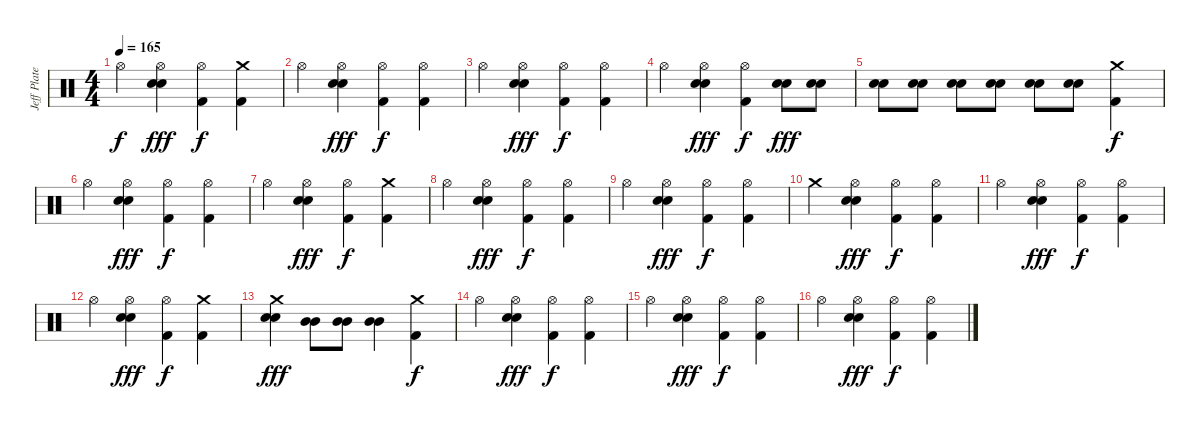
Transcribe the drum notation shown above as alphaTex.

\track ("Jeff Plate" "Jeff Plate") {instrument percussion}
\staff {score}
\articulation defaults
\ts (4 4)
\tempo 165
\clef neutral
\ks c "Hi-Hat (open)".4{dy f}
("Hi-Hat (open)" "Electric Snare (hit)" "Electric Snare (hit)").4{dy fff} ("Hi-Hat (open)" "Kick (hit) 2").4{dy f} ("Crash medium (hit)" "Kick (hit) 2").4 |
"Hi-Hat (open)".4 ("Hi-Hat (open)" "Electric Snare (hit)" "Electric Snare (hit)").4{dy fff} ("Hi-Hat (open)" "Kick (hit) 2").4{dy f} ("Hi-Hat (open)" "Kick (hit) 2").4 |
"Hi-Hat (open)".4 ("Hi-Hat (open)" "Electric Snare (hit)" "Electric Snare (hit)").4{dy fff} ("Hi-Hat (open)" "Kick (hit) 2").4{dy f} ("Hi-Hat (open)" "Kick (hit) 2").4 |
"Hi-Hat (open)".4 ("Hi-Hat (open)" "Electric Snare (hit)" "Electric Snare (hit)").4{dy fff} ("Hi-Hat (open)" "Kick (hit) 2").4{dy f} ("Electric Snare (hit)" "Electric Snare (hit)").8{dy fff} ("Electric Snare (hit)" "Electric Snare (hit)").8 |
("Electric Snare (hit)" "Electric Snare (hit)").8 ("Electric Snare (hit)" "Electric Snare (hit)").8 ("Electric Snare (hit)" "Electric Snare (hit)").8 ("Electric Snare (hit)" "Electric Snare (hit)").8 ("Electric Snare (hit)" "Electric Snare (hit)").8 ("Electric Snare (hit)" "Electric Snare (hit)").8 ("Crash medium (hit)" "Kick (hit) 2").4{dy f} |
"Hi-Hat (open)".4 ("Hi-Hat (open)" "Electric Snare (hit)" "Electric Snare (hit)").4{dy fff} ("Hi-Hat (open)" "Kick (hit) 2").4{dy f} ("Hi-Hat (open)" "Kick (hit) 2").4 |
"Hi-Hat (open)".4 ("Hi-Hat (open)" "Electric Snare (hit)" "Electric Snare (hit)").4{dy fff} ("Hi-Hat (open)" "Kick (hit) 2").4{dy f} ("Crash medium (hit)" "Kick (hit) 2").4 |
"Hi-Hat (open)".4 ("Hi-Hat (open)" "Electric Snare (hit)" "Electric Snare (hit)").4{dy fff} ("Hi-Hat (open)" "Kick (hit) 2").4{dy f} ("Hi-Hat (open)" "Kick (hit) 2").4 |
"Hi-Hat (open)".4 ("Hi-Hat (open)" "Electric Snare (hit)" "Electric Snare (hit)").4{dy fff} ("Hi-Hat (open)" "Kick (hit) 2").4{dy f} ("Hi-Hat (open)" "Kick (hit) 2").4 |
"Crash medium (hit)".4 ("Hi-Hat (open)" "Electric Snare (hit)" "Electric Snare (hit)").4{dy fff} ("Hi-Hat (open)" "Kick (hit) 2").4{dy f} ("Hi-Hat (open)" "Kick (hit) 2").4 |
"Hi-Hat (open)".4 ("Hi-Hat (open)" "Electric Snare (hit)" "Electric Snare (hit)").4{dy fff} ("Hi-Hat (open)" "Kick (hit) 2").4{dy f} ("Hi-Hat (open)" "Kick (hit) 2").4 |
"Hi-Hat (open)".4 ("Hi-Hat (open)" "Electric Snare (hit)" "Electric Snare (hit)").4{dy fff} ("Hi-Hat (open)" "Kick (hit) 2").4{dy f} ("Crash medium (hit)" "Kick (hit) 2").4 |
("Crash medium (hit)" "Electric Snare (hit)" "Electric Snare (hit)").4{dy fff} ("Mid Tom (hit)" "Mid Tom (hit)").8 ("Mid Tom (hit)" "Mid Tom (hit)").8 ("Mid Tom (hit)" "Mid Tom (hit)").4 ("Crash medium (hit)" "Kick (hit) 2").4{dy f} |
"Hi-Hat (open)".4 ("Hi-Hat (open)" "Electric Snare (hit)" "Electric Snare (hit)").4{dy fff} ("Hi-Hat (open)" "Kick (hit) 2").4{dy f} ("Hi-Hat (open)" "Kick (hit) 2").4 |
"Hi-Hat (open)".4 ("Hi-Hat (open)" "Electric Snare (hit)" "Electric Snare (hit)").4{dy fff} ("Hi-Hat (open)" "Kick (hit) 2").4{dy f} ("Hi-Hat (open)" "Kick (hit) 2").4 |
"Hi-Hat (open)".4 ("Hi-Hat (open)" "Electric Snare (hit)" "Electric Snare (hit)").4{dy fff} ("Hi-Hat (open)" "Kick (hit) 2").4{dy f} ("Hi-Hat (open)" "Kick (hit) 2").4
